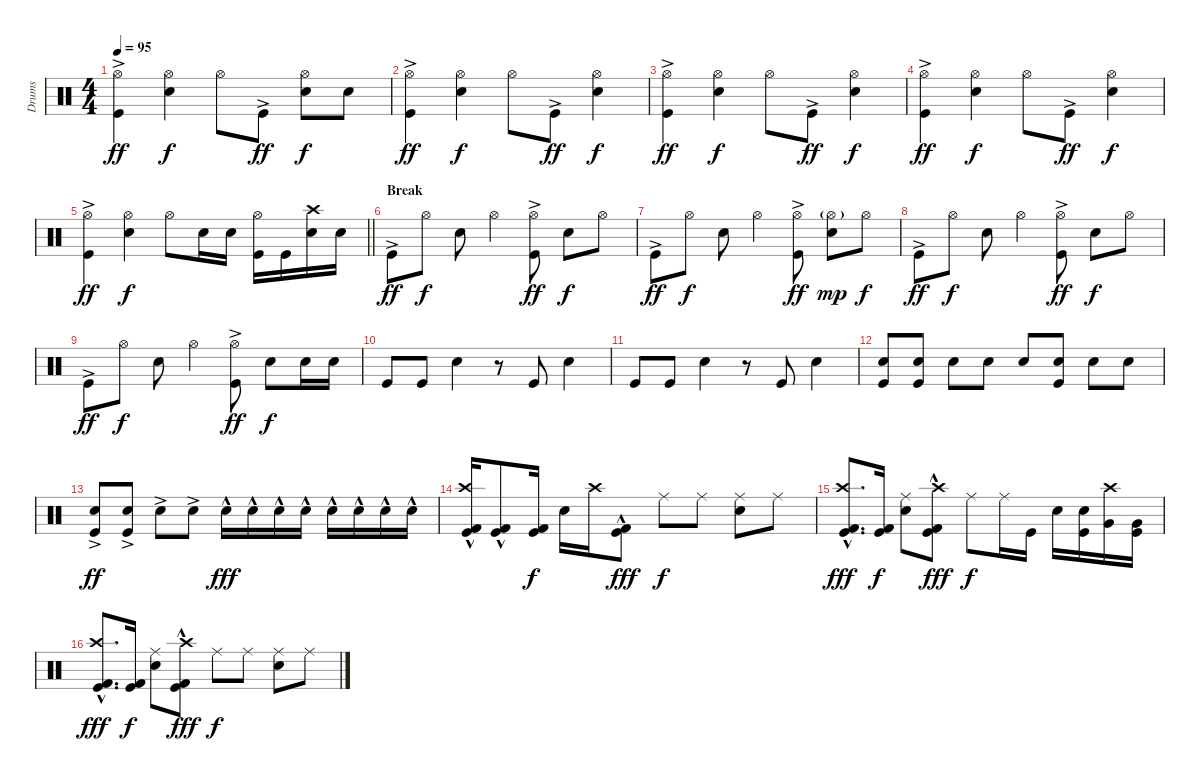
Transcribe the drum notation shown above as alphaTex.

\track ("Drums" "Drums") {instrument percussion}
\staff {score}
\articulation defaults
\ts (4 4)
\tempo 95
\clef neutral
\ks c
("Kick (hit)"{ac} "Hi-Hat (open)").4{dy ff} ("Snare (hit) 2" "Hi-Hat (open)").4{dy f} "Hi-Hat (open)".8 "Kick (hit)"{ac}.8{dy ff} ("Hi-Hat (open)" "Snare (hit) 2").8{dy f} "Snare (hit) 2".8 |
("Kick (hit)"{ac} "Hi-Hat (open)").4{dy ff} ("Snare (hit) 2" "Hi-Hat (open)").4{dy f} "Hi-Hat (open)".8 "Kick (hit)"{ac}.8{dy ff} ("Hi-Hat (open)" "Snare (hit) 2").4{dy f} |
("Kick (hit)"{ac} "Hi-Hat (open)").4{dy ff} ("Snare (hit) 2" "Hi-Hat (open)").4{dy f} "Hi-Hat (open)".8 "Kick (hit)"{ac}.8{dy ff} ("Hi-Hat (open)" "Snare (hit) 2").4{dy f} |
("Kick (hit)"{ac} "Hi-Hat (open)").4{dy ff} ("Snare (hit) 2" "Hi-Hat (open)").4{dy f} "Hi-Hat (open)".8 "Kick (hit)"{ac}.8{dy ff} ("Hi-Hat (open)" "Snare (hit) 2").4{dy f} |
\barLineRight lightlight
("Kick (hit)"{ac} "Hi-Hat (open)").4{dy ff} ("Snare (hit) 2" "Hi-Hat (open)").4{dy f} "Hi-Hat (open)".8 "Snare (hit) 2".16 "Snare (hit) 2".16 ("Kick (hit)" "Hi-Hat (open)").16 "Kick (hit)".16 ("Snare (hit) 2" "Crash high (hit)").16 "Snare (hit) 2".16 |
\section ("" "Break")
"Kick (hit)"{ac}.8{dy ff} "Hi-Hat (open)".8{dy f} "Snare (hit) 2".8 "Hi-Hat (open)".4 ("Kick (hit)"{ac} "Hi-Hat (open)").8{dy ff} "Snare (hit) 2".8{dy f} "Hi-Hat (open)".8 |
"Kick (hit)"{ac}.8{dy ff} "Hi-Hat (open)".8{dy f} "Snare (hit) 2".8 "Hi-Hat (open)".4 ("Kick (hit)"{ac} "Hi-Hat (open)").8{dy ff} ("Hi-Hat (open)"{g} "Snare (hit) 2").8{dy mp} "Hi-Hat (open)".8{dy f} |
"Kick (hit)"{ac}.8{dy ff} "Hi-Hat (open)".8{dy f} "Snare (hit) 2".8 "Hi-Hat (open)".4 ("Kick (hit)"{ac} "Hi-Hat (open)").8{dy ff} "Snare (hit) 2".8{dy f} "Hi-Hat (open)".8 |
"Kick (hit)"{ac}.8{dy ff} "Hi-Hat (open)".8{dy f} "Snare (hit) 2".8 "Hi-Hat (open)".4 ("Kick (hit)"{ac} "Hi-Hat (open)").8{dy ff} "Snare (hit) 2".8{dy f} "Snare (hit) 2".16 "Snare (hit) 2".16 |
"Kick (hit)".8 "Kick (hit)".8 "Snare (hit) 2".4 r.8 "Kick (hit)".8 "Snare (hit) 2".4 |
"Kick (hit)".8 "Kick (hit)".8 "Snare (hit) 2".4 r.8 "Kick (hit)".8 "Snare (hit) 2".4 |
("Snare (hit) 2" "Kick (hit)").8 ("Snare (hit) 2" "Kick (hit)").8 "Snare (hit) 2".8 "Snare (hit) 2".8 "Snare (hit) 2".8 ("Snare (hit) 2" "Kick (hit)").8 "Snare (hit) 2".8 "Snare (hit) 2".8 |
("Snare (hit) 2"{ac} "Kick (hit)"{ac}).8{dy ff volume 16} ("Snare (hit) 2"{ac} "Kick (hit)"{ac}).8 "Snare (hit) 2"{ac}.8 "Snare (hit) 2"{ac}.8 "Snare (hit) 2"{hac}.16{dy fff} "Snare (hit) 2"{hac}.16 "Snare (hit) 2"{hac}.16 "Snare (hit) 2"{hac}.16 "Snare (hit) 2"{hac}.16 "Snare (hit) 2"{hac}.16 "Snare (hit) 2"{hac}.16 "Snare (hit) 2"{hac}.16 |
("Kick (hit)"{hac} "Kick (hit) 2" "Crash high (hit)").16 ("Kick (hit)"{hac} "Kick (hit) 2").8 ("Kick (hit)" "Kick (hit) 2").16{dy f} "Snare (hit) 2".16 "Crash high (hit)".16 ("Kick (hit)"{hac} "Kick (hit) 2").8{dy fff} "Ride (middle)".8{dy f} "Ride (middle)".8 ("Snare (hit) 2" "Ride (middle)").8 "Ride (middle)".8 |
("Kick (hit)"{hac} "Kick (hit) 2" "Crash high (hit)").8{d dy fff} ("Kick (hit)" "Kick (hit) 2").16{dy f} ("Ride (middle)" "Snare (hit) 2").8 ("Kick (hit)"{hac} "Crash high (hit)" "Kick (hit) 2").8{dy fff} "Ride (middle)".8{dy f} "Ride (middle)".16 "Kick (hit)".16 "Snare (hit) 2".16 ("Kick (hit)" "Snare (hit) 2").16 ("Crash high (hit)" "Very Low Tom (hit)").16 ("Kick (hit)" "Very Low Tom (hit)").16 |
("Kick (hit)"{hac} "Kick (hit) 2" "Crash high (hit)").8{d dy fff} ("Kick (hit)" "Kick (hit) 2").16{dy f} ("Ride (middle)" "Snare (hit) 2").8 ("Kick (hit)"{hac} "Crash high (hit)" "Kick (hit) 2").8{dy fff} "Ride (middle)".8{dy f} "Ride (middle)".8 ("Snare (hit) 2" "Ride (middle)").8 "Ride (middle)".8
